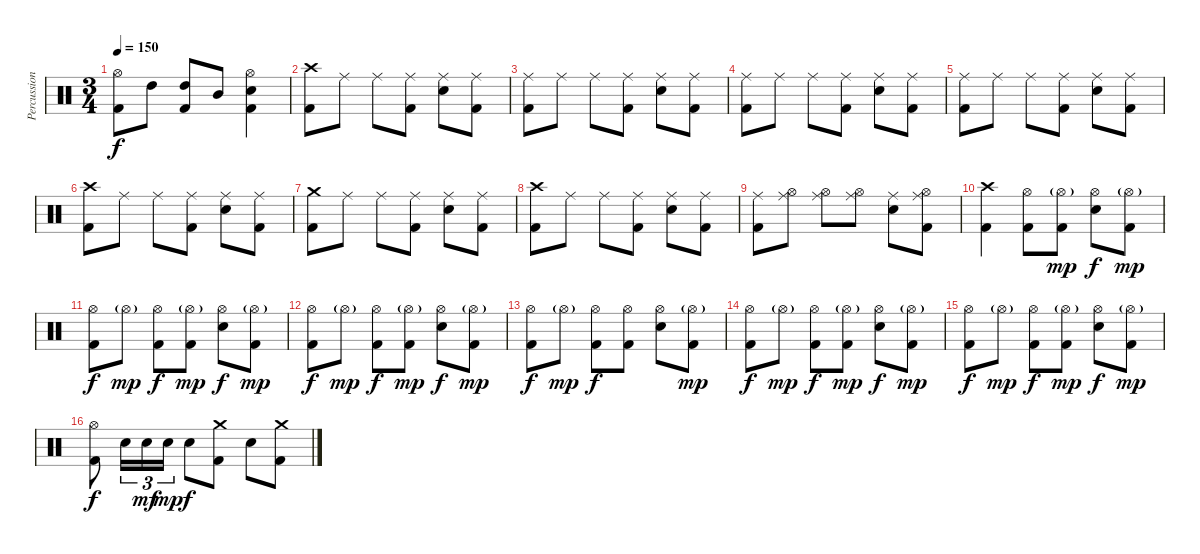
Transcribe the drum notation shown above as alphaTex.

\track ("Percussion" "Percussion") {instrument percussion}
\staff {score}
\articulation defaults
\ts (3 4)
\tempo 150
\clef neutral
\ks c
("Hi-Hat (open)" "Kick (hit) 2").8{dy f} "High Tom (hit)".8 ("High Tom (hit)" "Kick (hit) 2").8 "Mid Tom (hit)".8 ("Hi-Hat (open)" "Electric Snare (hit)" "Kick (hit) 2").4 |
("Crash high (hit)" "Kick (hit) 2").8 "Ride (middle)".8 "Ride (middle)".8 ("Ride (middle)" "Kick (hit) 2").8 ("Ride (middle)" "Electric Snare (hit)").8 ("Ride (middle)" "Kick (hit) 2").8 |
("Ride (middle)" "Kick (hit) 2").8 "Ride (middle)".8 "Ride (middle)".8 ("Ride (middle)" "Kick (hit) 2").8 ("Ride (middle)" "Electric Snare (hit)").8 ("Ride (middle)" "Kick (hit) 2").8 |
("Ride (middle)" "Kick (hit) 2").8 "Ride (middle)".8 "Ride (middle)".8 ("Ride (middle)" "Kick (hit) 2").8 ("Ride (middle)" "Electric Snare (hit)").8 ("Ride (middle)" "Kick (hit) 2").8 |
("Ride (middle)" "Kick (hit) 2").8 "Ride (middle)".8 "Ride (middle)".8 ("Ride (middle)" "Kick (hit) 2").8 ("Ride (middle)" "Electric Snare (hit)").8 ("Ride (middle)" "Kick (hit) 2").8 |
("Crash high (hit)" "Kick (hit) 2").8 "Ride (middle)".8 "Ride (middle)".8 ("Ride (middle)" "Kick (hit) 2").8 ("Ride (middle)" "Electric Snare (hit)").8 ("Ride (middle)" "Kick (hit) 2").8 |
("Crash medium (hit)" "Kick (hit) 2").8 "Ride (middle)".8 "Ride (middle)".8 ("Ride (middle)" "Kick (hit) 2").8 ("Ride (middle)" "Electric Snare (hit)").8 ("Ride (middle)" "Kick (hit) 2").8 |
("Crash high (hit)" "Kick (hit) 2").8 "Ride (middle)".8 "Ride (middle)".8 ("Ride (middle)" "Kick (hit) 2").8 ("Ride (middle)" "Electric Snare (hit)").8 ("Ride (middle)" "Kick (hit) 2").8 |
("Ride (middle)" "Kick (hit) 2").8 ("Ride (middle)" "Hi-Hat (open)").8 ("Ride (middle)" "Hi-Hat (open)").8 ("Ride (middle)" "Hi-Hat (open)").8 ("Ride (middle)" "Electric Snare (hit)").8 ("Ride (middle)" "Hi-Hat (open)" "Kick (hit) 2").8 |
("Crash high (hit)" "Kick (hit) 2").4 ("Hi-Hat (open)" "Kick (hit) 2").8 ("Hi-Hat (open)"{g} "Kick (hit) 2").8{dy mp} ("Hi-Hat (open)" "Electric Snare (hit)").8{dy f} ("Hi-Hat (open)"{g} "Kick (hit) 2").8{dy mp} |
("Hi-Hat (open)" "Kick (hit) 2").8{dy f} "Hi-Hat (open)"{g}.8{dy mp} ("Hi-Hat (open)" "Kick (hit) 2").8{dy f} ("Hi-Hat (open)"{g} "Kick (hit) 2").8{dy mp} ("Hi-Hat (open)" "Electric Snare (hit)").8{dy f} ("Hi-Hat (open)"{g} "Kick (hit) 2").8{dy mp} |
("Hi-Hat (open)" "Kick (hit) 2").8{dy f} "Hi-Hat (open)"{g}.8{dy mp} ("Hi-Hat (open)" "Kick (hit) 2").8{dy f} ("Hi-Hat (open)"{g} "Kick (hit) 2").8{dy mp} ("Hi-Hat (open)" "Electric Snare (hit)").8{dy f} ("Hi-Hat (open)"{g} "Kick (hit) 2").8{dy mp} |
("Hi-Hat (open)" "Kick (hit) 2").8{dy f} "Hi-Hat (open)"{g}.8{dy mp} ("Hi-Hat (open)" "Kick (hit) 2").8{dy f} ("Hi-Hat (open)" "Kick (hit) 2").8 ("Hi-Hat (open)" "Electric Snare (hit)").8 ("Hi-Hat (open)"{g} "Kick (hit) 2").8{dy mp} |
("Hi-Hat (open)" "Kick (hit) 2").8{dy f} "Hi-Hat (open)"{g}.8{dy mp} ("Hi-Hat (open)" "Kick (hit) 2").8{dy f} ("Hi-Hat (open)"{g} "Kick (hit) 2").8{dy mp} ("Hi-Hat (open)" "Electric Snare (hit)").8{dy f} ("Hi-Hat (open)"{g} "Kick (hit) 2").8{dy mp} |
("Hi-Hat (open)" "Kick (hit) 2").8{dy f} "Hi-Hat (open)"{g}.8{dy mp} ("Hi-Hat (open)" "Kick (hit) 2").8{dy f} ("Hi-Hat (open)"{g} "Kick (hit) 2").8{dy mp} ("Hi-Hat (open)" "Electric Snare (hit)").8{dy f} ("Hi-Hat (open)"{g} "Kick (hit) 2").8{dy mp} |
("Hi-Hat (open)" "Kick (hit) 2").8{dy f} "Electric Snare (hit)".16{tu (3 2)} "Electric Snare (hit)".16{tu (3 2) dy mf} "Electric Snare (hit)".16{tu (3 2) dy mp} "Electric Snare (hit)".8{dy f} ("Crash medium (hit)" "Kick (hit) 2").8 "Electric Snare (hit)".8 ("Crash medium (hit)" "Kick (hit) 2").8
